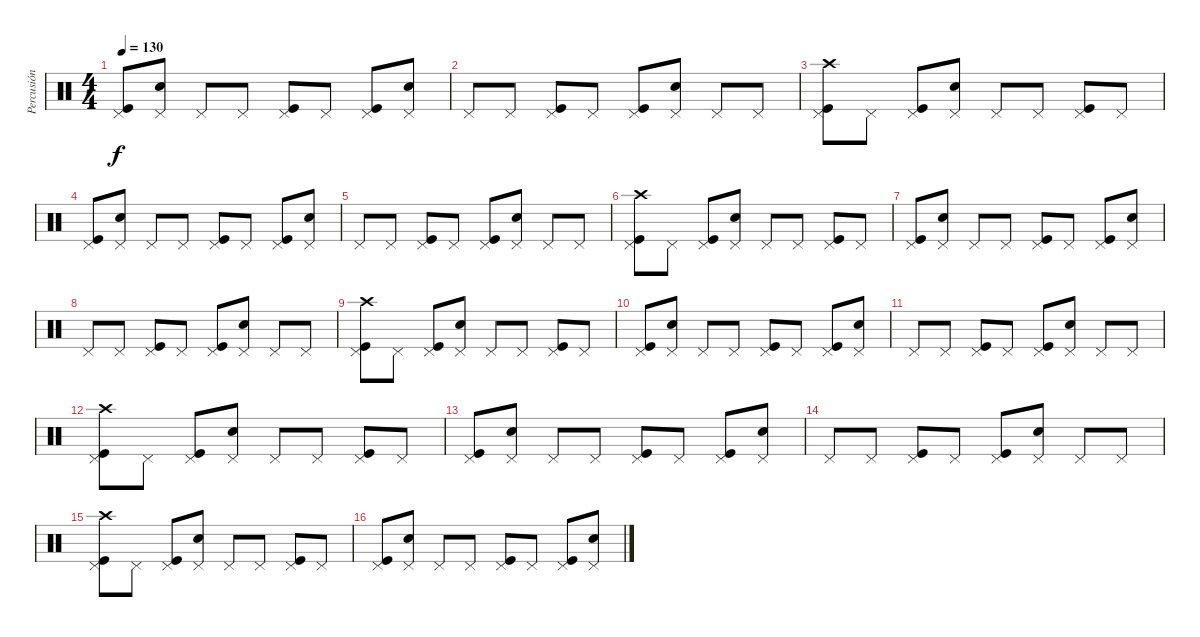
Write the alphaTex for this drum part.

\track ("Percusión" "Percusión") {instrument percussion}
\staff {score}
\articulation defaults
\ts (4 4)
\tempo 130
\clef neutral
\ks c
("Kick (hit)" "Pedal Hi-Hat (hit)").8{dy f} ("Electric Snare (hit)" "Pedal Hi-Hat (hit)").8 "Pedal Hi-Hat (hit)".8 "Pedal Hi-Hat (hit)".8 ("Kick (hit)" "Pedal Hi-Hat (hit)").8 "Pedal Hi-Hat (hit)".8 ("Kick (hit)" "Pedal Hi-Hat (hit)").8 ("Electric Snare (hit)" "Pedal Hi-Hat (hit)").8 |
"Pedal Hi-Hat (hit)".8 "Pedal Hi-Hat (hit)".8 ("Kick (hit)" "Pedal Hi-Hat (hit)").8 "Pedal Hi-Hat (hit)".8 ("Kick (hit)" "Pedal Hi-Hat (hit)").8 ("Electric Snare (hit)" "Pedal Hi-Hat (hit)").8 "Pedal Hi-Hat (hit)".8 "Pedal Hi-Hat (hit)".8 |
("Kick (hit)" "Pedal Hi-Hat (hit)" "Crash high (hit)").8 "Pedal Hi-Hat (hit)".8 ("Kick (hit)" "Pedal Hi-Hat (hit)").8 ("Electric Snare (hit)" "Pedal Hi-Hat (hit)").8 "Pedal Hi-Hat (hit)".8 "Pedal Hi-Hat (hit)".8 ("Kick (hit)" "Pedal Hi-Hat (hit)").8 "Pedal Hi-Hat (hit)".8 |
("Kick (hit)" "Pedal Hi-Hat (hit)").8 ("Electric Snare (hit)" "Pedal Hi-Hat (hit)").8 "Pedal Hi-Hat (hit)".8 "Pedal Hi-Hat (hit)".8 ("Kick (hit)" "Pedal Hi-Hat (hit)").8 "Pedal Hi-Hat (hit)".8 ("Kick (hit)" "Pedal Hi-Hat (hit)").8 ("Electric Snare (hit)" "Pedal Hi-Hat (hit)").8 |
"Pedal Hi-Hat (hit)".8 "Pedal Hi-Hat (hit)".8 ("Kick (hit)" "Pedal Hi-Hat (hit)").8 "Pedal Hi-Hat (hit)".8 ("Kick (hit)" "Pedal Hi-Hat (hit)").8 ("Electric Snare (hit)" "Pedal Hi-Hat (hit)").8 "Pedal Hi-Hat (hit)".8 "Pedal Hi-Hat (hit)".8 |
("Kick (hit)" "Pedal Hi-Hat (hit)" "Crash high (hit)").8 "Pedal Hi-Hat (hit)".8 ("Kick (hit)" "Pedal Hi-Hat (hit)").8 ("Electric Snare (hit)" "Pedal Hi-Hat (hit)").8 "Pedal Hi-Hat (hit)".8 "Pedal Hi-Hat (hit)".8 ("Kick (hit)" "Pedal Hi-Hat (hit)").8 "Pedal Hi-Hat (hit)".8 |
("Kick (hit)" "Pedal Hi-Hat (hit)").8 ("Electric Snare (hit)" "Pedal Hi-Hat (hit)").8 "Pedal Hi-Hat (hit)".8 "Pedal Hi-Hat (hit)".8 ("Kick (hit)" "Pedal Hi-Hat (hit)").8 "Pedal Hi-Hat (hit)".8 ("Kick (hit)" "Pedal Hi-Hat (hit)").8 ("Electric Snare (hit)" "Pedal Hi-Hat (hit)").8 |
"Pedal Hi-Hat (hit)".8 "Pedal Hi-Hat (hit)".8 ("Kick (hit)" "Pedal Hi-Hat (hit)").8 "Pedal Hi-Hat (hit)".8 ("Kick (hit)" "Pedal Hi-Hat (hit)").8 ("Electric Snare (hit)" "Pedal Hi-Hat (hit)").8 "Pedal Hi-Hat (hit)".8 "Pedal Hi-Hat (hit)".8 |
("Kick (hit)" "Pedal Hi-Hat (hit)" "Crash high (hit)").8 "Pedal Hi-Hat (hit)".8 ("Kick (hit)" "Pedal Hi-Hat (hit)").8 ("Electric Snare (hit)" "Pedal Hi-Hat (hit)").8 "Pedal Hi-Hat (hit)".8 "Pedal Hi-Hat (hit)".8 ("Kick (hit)" "Pedal Hi-Hat (hit)").8 "Pedal Hi-Hat (hit)".8 |
("Kick (hit)" "Pedal Hi-Hat (hit)").8 ("Electric Snare (hit)" "Pedal Hi-Hat (hit)").8 "Pedal Hi-Hat (hit)".8 "Pedal Hi-Hat (hit)".8 ("Kick (hit)" "Pedal Hi-Hat (hit)").8 "Pedal Hi-Hat (hit)".8 ("Kick (hit)" "Pedal Hi-Hat (hit)").8 ("Electric Snare (hit)" "Pedal Hi-Hat (hit)").8 |
"Pedal Hi-Hat (hit)".8 "Pedal Hi-Hat (hit)".8 ("Kick (hit)" "Pedal Hi-Hat (hit)").8 "Pedal Hi-Hat (hit)".8 ("Kick (hit)" "Pedal Hi-Hat (hit)").8 ("Electric Snare (hit)" "Pedal Hi-Hat (hit)").8 "Pedal Hi-Hat (hit)".8 "Pedal Hi-Hat (hit)".8 |
("Kick (hit)" "Pedal Hi-Hat (hit)" "Crash high (hit)").8 "Pedal Hi-Hat (hit)".8 ("Kick (hit)" "Pedal Hi-Hat (hit)").8 ("Electric Snare (hit)" "Pedal Hi-Hat (hit)").8 "Pedal Hi-Hat (hit)".8 "Pedal Hi-Hat (hit)".8 ("Kick (hit)" "Pedal Hi-Hat (hit)").8 "Pedal Hi-Hat (hit)".8 |
("Kick (hit)" "Pedal Hi-Hat (hit)").8 ("Electric Snare (hit)" "Pedal Hi-Hat (hit)").8 "Pedal Hi-Hat (hit)".8 "Pedal Hi-Hat (hit)".8 ("Kick (hit)" "Pedal Hi-Hat (hit)").8 "Pedal Hi-Hat (hit)".8 ("Kick (hit)" "Pedal Hi-Hat (hit)").8 ("Electric Snare (hit)" "Pedal Hi-Hat (hit)").8 |
"Pedal Hi-Hat (hit)".8 "Pedal Hi-Hat (hit)".8 ("Kick (hit)" "Pedal Hi-Hat (hit)").8 "Pedal Hi-Hat (hit)".8 ("Kick (hit)" "Pedal Hi-Hat (hit)").8 ("Electric Snare (hit)" "Pedal Hi-Hat (hit)").8 "Pedal Hi-Hat (hit)".8 "Pedal Hi-Hat (hit)".8 |
("Kick (hit)" "Pedal Hi-Hat (hit)" "Crash high (hit)").8 "Pedal Hi-Hat (hit)".8 ("Kick (hit)" "Pedal Hi-Hat (hit)").8 ("Electric Snare (hit)" "Pedal Hi-Hat (hit)").8 "Pedal Hi-Hat (hit)".8 "Pedal Hi-Hat (hit)".8 ("Kick (hit)" "Pedal Hi-Hat (hit)").8 "Pedal Hi-Hat (hit)".8 |
("Kick (hit)" "Pedal Hi-Hat (hit)").8 ("Electric Snare (hit)" "Pedal Hi-Hat (hit)").8 "Pedal Hi-Hat (hit)".8 "Pedal Hi-Hat (hit)".8 ("Kick (hit)" "Pedal Hi-Hat (hit)").8 "Pedal Hi-Hat (hit)".8 ("Kick (hit)" "Pedal Hi-Hat (hit)").8 ("Electric Snare (hit)" "Pedal Hi-Hat (hit)").8
